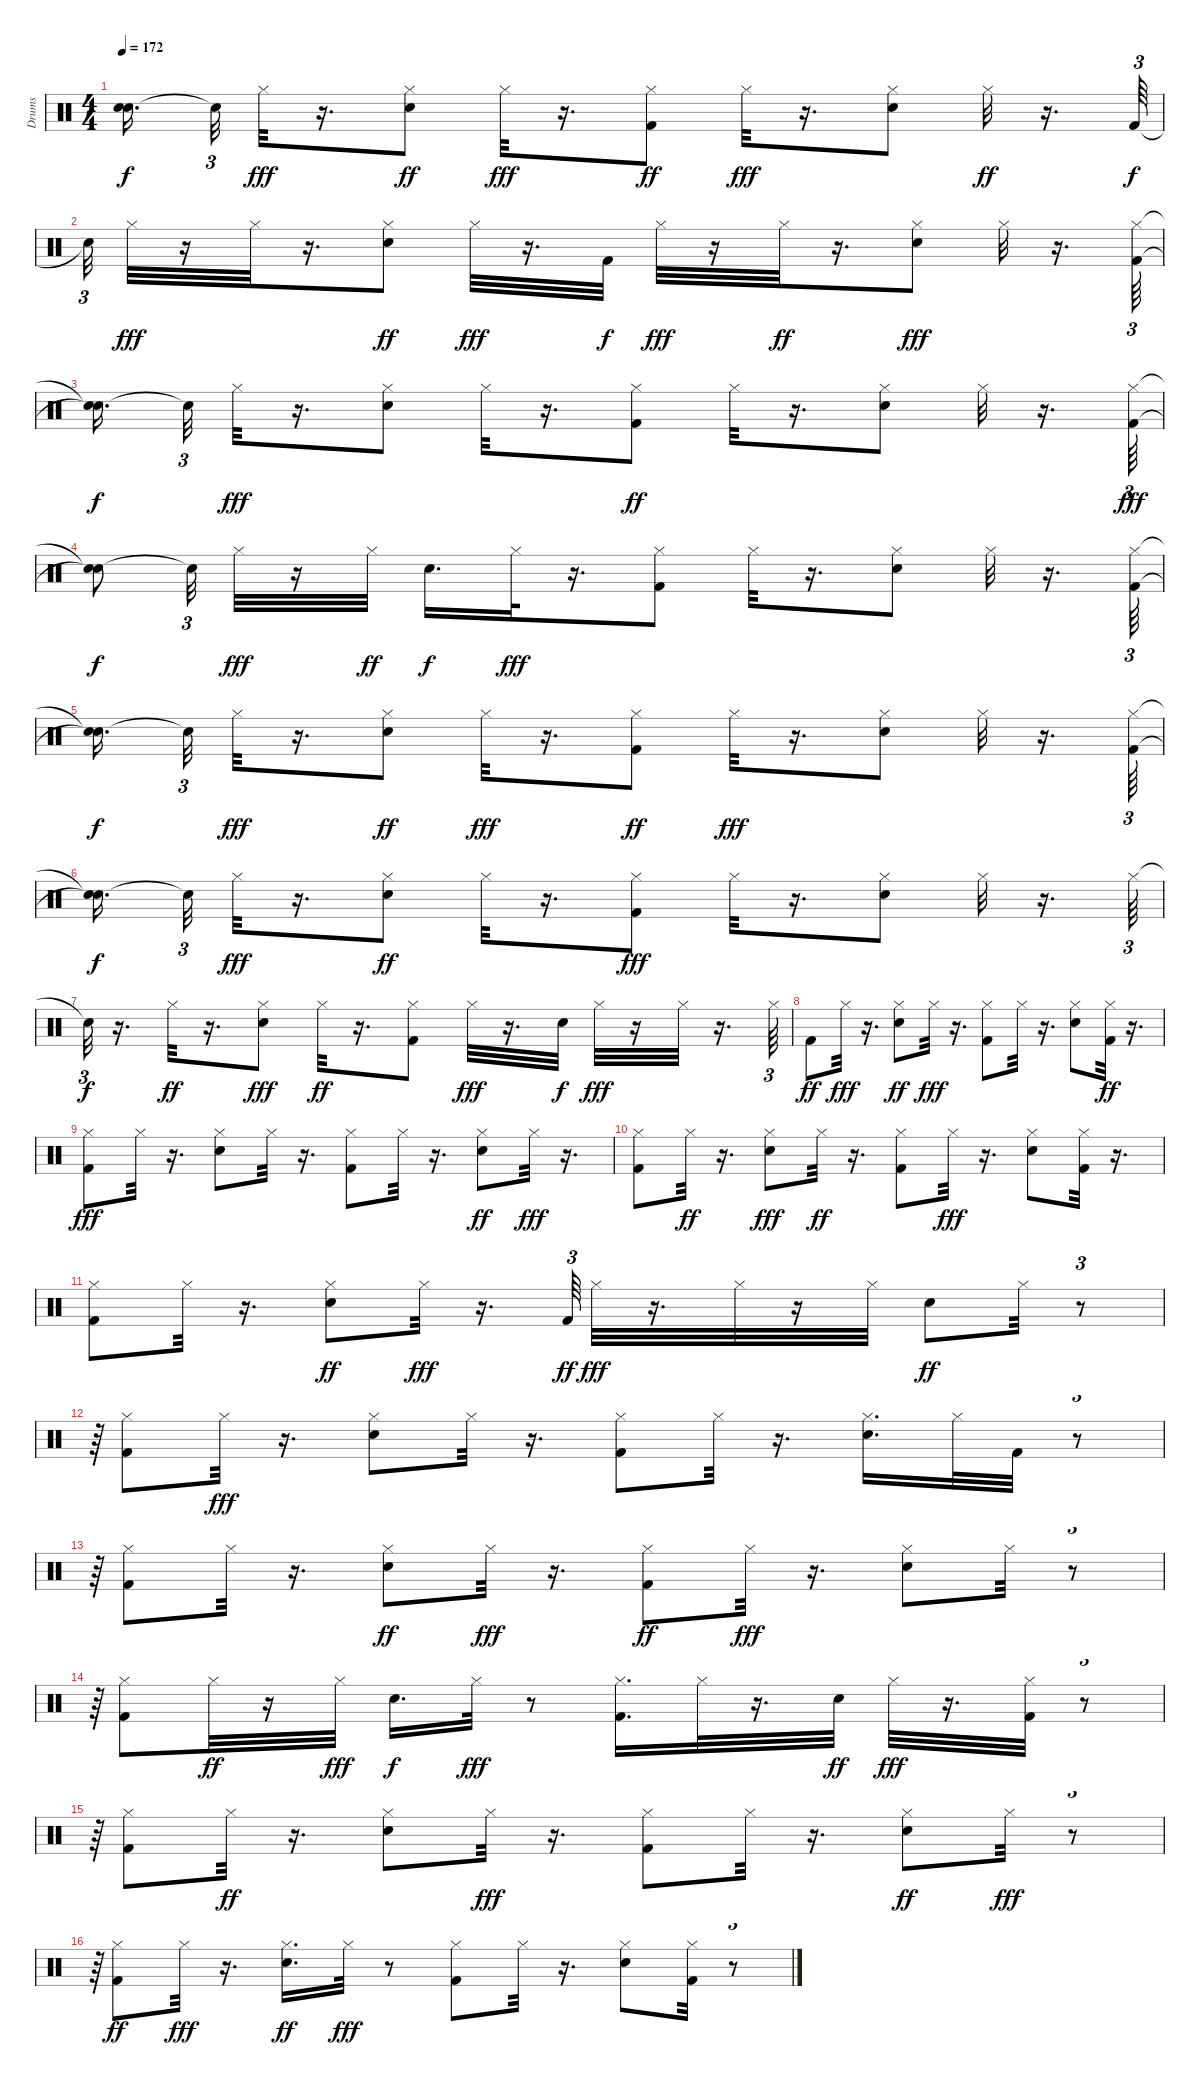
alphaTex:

\track ("Drums" "Drums") {instrument percussion}
\staff {score}
\articulation defaults
\ts (4 4)
\tempo 172
\clef neutral
\ks c
("Snare (hit)"{t} "Snare (hit)"{t}).16{d dy f beam splitsecondary} "Snare (hit)"{t}.32{tu (3 2)} "Hi-Hat (closed)".32{dy fff} r.16{d} ("Hi-Hat (closed)" "Electric Snare (hit)").8{dy ff} "Hi-Hat (closed)".32{dy fff} r.16{d} ("Hi-Hat (closed)" "Kick (hit) 2").8{dy ff} "Hi-Hat (closed)".32{dy fff} r.16{d} ("Electric Snare (hit)" "Hi-Hat (closed)").8 "Hi-Hat (closed)".32{dy ff} r.16{d} "Kick (hit) 2".64{tu (3 2) dy f} |
"Snare (hit)"{t}.32{tu (3 2)} "Hi-Hat (closed)".32{dy fff} r.16 "Hi-Hat (closed)".32 r.16{d} ("Electric Snare (hit)" "Hi-Hat (closed)").8{dy ff} "Hi-Hat (closed)".32{dy fff} r.16{d} "Kick (hit) 2".32{dy f} "Hi-Hat (closed)".32{dy fff} r.16 "Hi-Hat (closed)".32{dy ff} r.16{d} ("Hi-Hat (closed)" "Electric Snare (hit)").8{dy fff} "Hi-Hat (closed)".32 r.16{d} ("Hi-Hat (closed)" "Kick (hit) 2").64{tu (3 2)} |
("Snare (hit)"{t} "Snare (hit)"{t}).16{d dy f beam splitsecondary} "Snare (hit)"{t}.32{tu (3 2)} "Hi-Hat (closed)".32{dy fff} r.16{d} ("Electric Snare (hit)" "Hi-Hat (closed)").8 "Hi-Hat (closed)".32 r.16{d} ("Hi-Hat (closed)" "Kick (hit) 2").8{dy ff} "Hi-Hat (closed)".32 r.16{d} ("Hi-Hat (closed)" "Electric Snare (hit)").8 "Hi-Hat (closed)".32 r.16{d} ("Hi-Hat (closed)" "Kick (hit) 2").64{tu (3 2) dy fff} |
("Snare (hit)"{t} "Snare (hit)"{t}).8{dy f} "Snare (hit)"{t}.32{tu (3 2)} "Hi-Hat (closed)".32{dy fff} r.16 "Hi-Hat (closed)".32{dy ff} "Electric Snare (hit)".16{d dy f} "Hi-Hat (closed)".32{dy fff} r.16{d} ("Kick (hit) 2" "Hi-Hat (closed)").8 "Hi-Hat (closed)".32 r.16{d} ("Electric Snare (hit)" "Hi-Hat (closed)").8 "Hi-Hat (closed)".32 r.16{d} ("Kick (hit) 2" "Hi-Hat (closed)").64{tu (3 2)} |
("Snare (hit)"{t} "Snare (hit)"{t}).16{d dy f beam splitsecondary} "Snare (hit)"{t}.32{tu (3 2)} "Hi-Hat (closed)".32{dy fff} r.16{d} ("Hi-Hat (closed)" "Electric Snare (hit)").8{dy ff} "Hi-Hat (closed)".32{dy fff} r.16{d} ("Kick (hit) 2" "Hi-Hat (closed)").8{dy ff} "Hi-Hat (closed)".32{dy fff} r.16{d} ("Electric Snare (hit)" "Hi-Hat (closed)").8 "Hi-Hat (closed)".32 r.16{d} ("Kick (hit) 2" "Hi-Hat (closed)").64{tu (3 2)} |
("Snare (hit)"{t} "Snare (hit)"{t}).16{d dy f beam splitsecondary} "Snare (hit)"{t}.32{tu (3 2)} "Hi-Hat (closed)".32{dy fff} r.16{d} ("Hi-Hat (closed)" "Electric Snare (hit)").8{dy ff} "Hi-Hat (closed)".32 r.16{d} ("Kick (hit) 2" "Hi-Hat (closed)").8{dy fff} "Hi-Hat (closed)".32 r.16{d} ("Electric Snare (hit)" "Hi-Hat (closed)").8 "Hi-Hat (closed)".32 r.16{d} "Hi-Hat (closed)".64{tu (3 2)} |
"Snare (hit)"{t}.32{tu (3 2) dy f} r.16{d} "Hi-Hat (closed)".32{dy ff} r.16{d} ("Hi-Hat (closed)" "Electric Snare (hit)").8{dy fff} "Hi-Hat (closed)".32{dy ff} r.16{d} ("Hi-Hat (closed)" "Kick (hit) 2").8 "Hi-Hat (closed)".32{dy fff} r.16{d} "Electric Snare (hit)".32{dy f} "Hi-Hat (closed)".32{dy fff} r.16 "Hi-Hat (closed)".32 r.16{d} "Hi-Hat (closed)".64{tu (3 2)} |
"Kick (hit) 2".8{dy ff} "Hi-Hat (closed)".32{dy fff} r.16{d} ("Electric Snare (hit)" "Hi-Hat (closed)").8{dy ff} "Hi-Hat (closed)".32{dy fff} r.16{d} ("Kick (hit) 2" "Hi-Hat (closed)").8 "Hi-Hat (closed)".32 r.16{d} ("Electric Snare (hit)" "Hi-Hat (closed)").8 ("Kick (hit) 2" "Hi-Hat (closed)").32{dy ff} r.16{d} |
("Hi-Hat (closed)" "Kick (hit) 2").8{dy fff} "Hi-Hat (closed)".32 r.16{d} ("Electric Snare (hit)" "Hi-Hat (closed)").8 "Hi-Hat (closed)".32 r.16{d} ("Kick (hit) 2" "Hi-Hat (closed)").8 "Hi-Hat (closed)".32 r.16{d} ("Hi-Hat (closed)" "Electric Snare (hit)").8{dy ff} "Hi-Hat (closed)".32{dy fff} r.16{d} |
("Hi-Hat (closed)" "Kick (hit) 2").8 "Hi-Hat (closed)".32{dy ff} r.16{d} ("Electric Snare (hit)" "Hi-Hat (closed)").8{dy fff} "Hi-Hat (closed)".32{dy ff} r.16{d} ("Hi-Hat (closed)" "Kick (hit) 2").8 "Hi-Hat (closed)".32{dy fff} r.16{d} ("Hi-Hat (closed)" "Electric Snare (hit)").8 ("Hi-Hat (closed)" "Kick (hit) 2").32 r.16{d} |
("Kick (hit) 2" "Hi-Hat (closed)").8 "Hi-Hat (closed)".32 r.16{d} ("Hi-Hat (closed)" "Electric Snare (hit)").8{dy ff} "Hi-Hat (closed)".32{dy fff} r.16{d} "Kick (hit) 2".64{tu (3 2) dy ff} "Hi-Hat (closed)".32{dy fff} r.16{d} "Hi-Hat (closed)".32 r.16 "Hi-Hat (closed)".32 "Electric Snare (hit)".8{dy ff} "Hi-Hat (closed)".32 r.8{tu (3 2)} |
r.64{tu (3 2)} ("Kick (hit) 2" "Hi-Hat (closed)").8 "Hi-Hat (closed)".32{dy fff} r.16{d} ("Electric Snare (hit)" "Hi-Hat (closed)").8 "Hi-Hat (closed)".32 r.16{d} ("Hi-Hat (closed)" "Kick (hit) 2").8 "Hi-Hat (closed)".32 r.16{d} ("Electric Snare (hit)" "Hi-Hat (closed)").16{d} "Hi-Hat (closed)".32 "Kick (hit) 2".32 r.8{tu (3 2)} |
r.64{tu (3 2)} ("Kick (hit) 2" "Hi-Hat (closed)").8 "Hi-Hat (closed)".32 r.16{d} ("Hi-Hat (closed)" "Electric Snare (hit)").8{dy ff} "Hi-Hat (closed)".32{dy fff} r.16{d} ("Kick (hit) 2" "Hi-Hat (closed)").8{dy ff} "Hi-Hat (closed)".32{dy fff} r.16{d} ("Hi-Hat (closed)" "Electric Snare (hit)").8 "Hi-Hat (closed)".32 r.8{tu (3 2)} |
r.64{tu (3 2)} ("Kick (hit) 2" "Hi-Hat (closed)").8 "Hi-Hat (closed)".32{dy ff} r.16 "Hi-Hat (closed)".32{dy fff} "Electric Snare (hit)".16{d dy f} "Hi-Hat (closed)".32{dy fff} r.8 ("Hi-Hat (closed)" "Kick (hit) 2").16{d} "Hi-Hat (closed)".32 r.16{d} "Electric Snare (hit)".32{dy ff} "Hi-Hat (closed)".32{dy fff} r.16{d} ("Kick (hit) 2" "Hi-Hat (closed)").32 r.8{tu (3 2)} |
r.64{tu (3 2)} ("Kick (hit) 2" "Hi-Hat (closed)").8 "Hi-Hat (closed)".32{dy ff} r.16{d} ("Hi-Hat (closed)" "Electric Snare (hit)").8 "Hi-Hat (closed)".32{dy fff} r.16{d} ("Kick (hit) 2" "Hi-Hat (closed)").8 "Hi-Hat (closed)".32 r.16{d} ("Hi-Hat (closed)" "Electric Snare (hit)").8{dy ff} "Hi-Hat (closed)".32{dy fff} r.8{tu (3 2)} |
r.64{tu (3 2)} ("Hi-Hat (closed)" "Kick (hit) 2").8{dy ff} "Hi-Hat (closed)".32{dy fff} r.16{d} ("Hi-Hat (closed)" "Electric Snare (hit)").16{d dy ff} "Hi-Hat (closed)".32{dy fff} r.8 ("Kick (hit) 2" "Hi-Hat (closed)").8 "Hi-Hat (closed)".32 r.16{d} ("Hi-Hat (closed)" "Electric Snare (hit)").8 ("Kick (hit) 2" "Hi-Hat (closed)").32 r.8{tu (3 2)}
